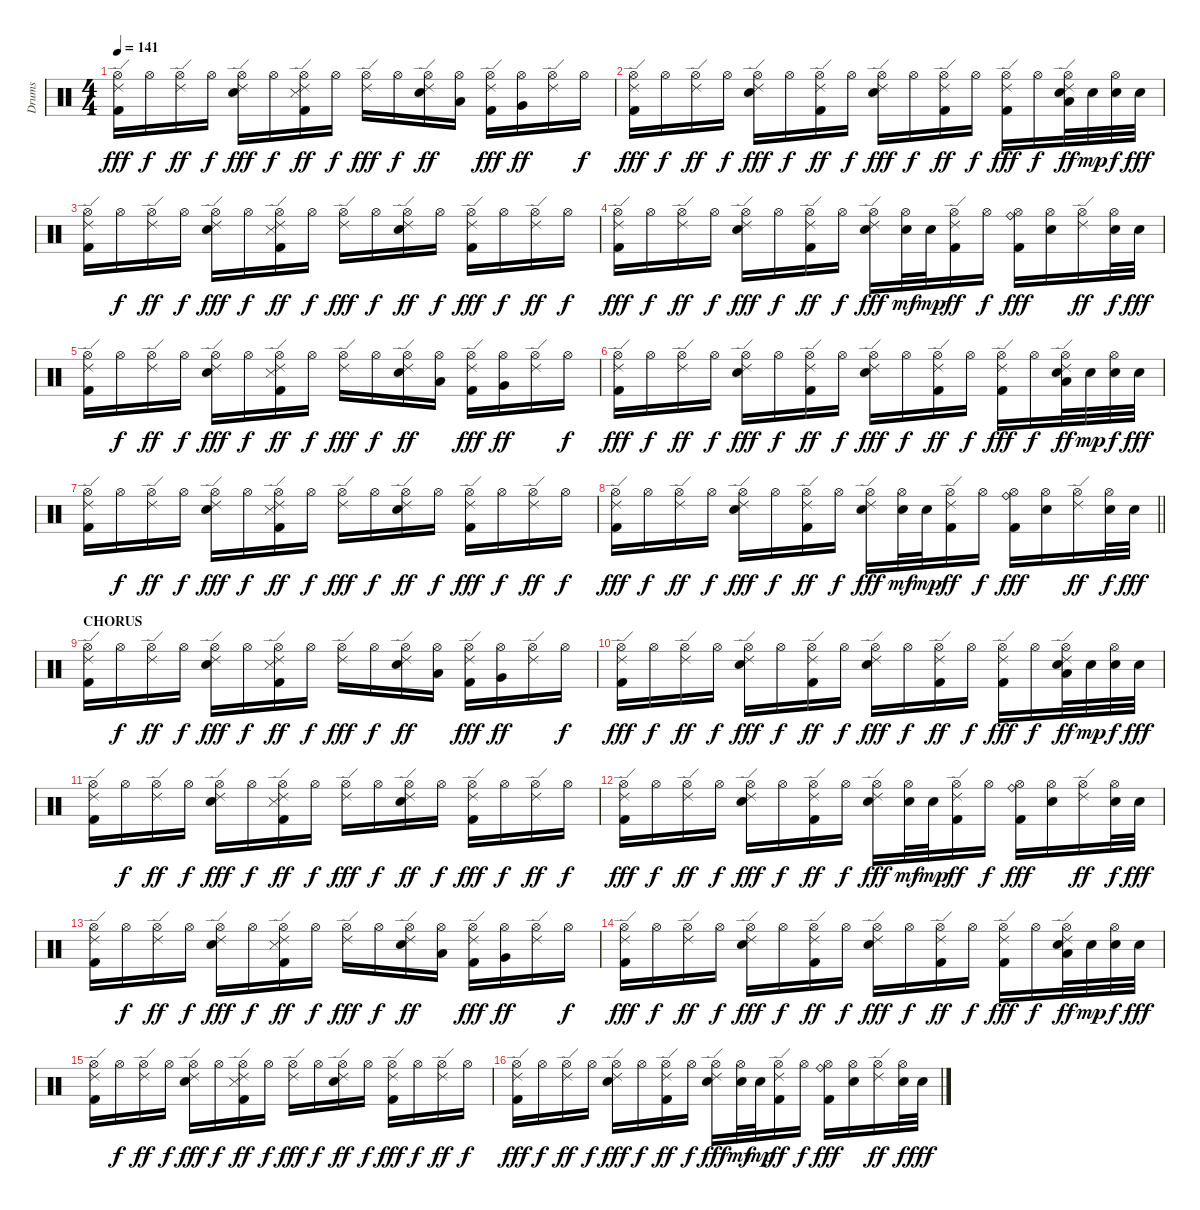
\track ("Drums" "Drums") {instrument percussion}
\staff {score}
\articulation defaults
\ts (4 4)
\tempo 141
\clef neutral
\ks c
("Kick (hit) 2" "Hi-Hat (open)" "Ride (edge) 2").16{dy fff} "Hi-Hat (open)".16{dy f} ("Hi-Hat (open)" "Ride (edge) 2").16{dy ff} "Hi-Hat (open)".16{dy f} ("Snare (hit) 2" "Hi-Hat (open)" "Ride (edge) 2").16{dy fff} "Hi-Hat (open)".16{dy f} ("Kick (hit) 2" "Snare (side stick) 3" "Hi-Hat (open)" "Ride (edge) 2").16{dy ff} "Hi-Hat (open)".16{dy f} ("Hi-Hat (open)" "Ride (edge) 2").16{dy fff} "Hi-Hat (open)".16{dy f} ("Snare (hit) 2" "Hi-Hat (open)" "Ride (edge) 2").16{dy ff} ("Hi-Hat (open)" "Low Floor Tom (hit)").16 ("Kick (hit) 2" "Hi-Hat (open)" "Ride (edge) 2").16{dy fff} ("Hi-Hat (open)" "Very Low Tom (hit)").16{dy ff} ("Hi-Hat (open)" "Ride (edge) 2").16 "Hi-Hat (open)".16{dy f} |
("Kick (hit) 2" "Hi-Hat (open)" "Ride (edge) 2").16{dy fff} "Hi-Hat (open)".16{dy f} ("Hi-Hat (open)" "Ride (edge) 2").16{dy ff} "Hi-Hat (open)".16{dy f} ("Snare (hit) 2" "Hi-Hat (open)" "Ride (edge) 2").16{dy fff} "Hi-Hat (open)".16{dy f} ("Kick (hit) 2" "Hi-Hat (open)" "Ride (edge) 2").16{dy ff} "Hi-Hat (open)".16{dy f} ("Snare (hit) 2" "Hi-Hat (open)" "Ride (edge) 2").16{dy fff} "Hi-Hat (open)".16{dy f} ("Kick (hit) 2" "Hi-Hat (open)" "Ride (edge) 2").16{dy ff} "Hi-Hat (open)".16{dy f} ("Kick (hit) 2" "Hi-Hat (open)" "Ride (edge) 2").16{dy fff} "Hi-Hat (open)".16{dy f} ("Snare (hit) 2" "Hi-Hat (open)" "Ride (edge) 2" "Low Tom (hit)").32{dy ff} "Snare (hit) 2".32{dy mp} ("Snare (hit) 2" "Hi-Hat (open)").32{dy f} "Snare (hit) 2".32{dy fff} |
("Kick (hit) 2" "Hi-Hat (open)" "Ride (edge) 2").16 "Hi-Hat (open)".16{dy f} ("Hi-Hat (open)" "Ride (edge) 2").16{dy ff} "Hi-Hat (open)".16{dy f} ("Snare (hit) 2" "Hi-Hat (open)" "Ride (edge) 2").16{dy fff} "Hi-Hat (open)".16{dy f} ("Kick (hit) 2" "Snare (side stick) 3" "Hi-Hat (open)" "Ride (edge) 2").16{dy ff} "Hi-Hat (open)".16{dy f} ("Hi-Hat (open)" "Ride (edge) 2").16{dy fff} "Hi-Hat (open)".16{dy f} ("Snare (hit) 2" "Hi-Hat (open)" "Ride (edge) 2").16{dy ff} "Hi-Hat (open)".16{dy f} ("Kick (hit) 2" "Hi-Hat (open)" "Ride (edge) 2").16{dy fff} "Hi-Hat (open)".16{dy f} ("Hi-Hat (open)" "Ride (edge) 2").16{dy ff} "Hi-Hat (open)".16{dy f} |
("Kick (hit) 2" "Hi-Hat (open)" "Ride (edge) 2").16{dy fff} "Hi-Hat (open)".16{dy f} ("Hi-Hat (open)" "Ride (edge) 2").16{dy ff} "Hi-Hat (open)".16{dy f} ("Snare (hit) 2" "Hi-Hat (open)" "Ride (edge) 2").16{dy fff} "Hi-Hat (open)".16{dy f} ("Kick (hit) 2" "Hi-Hat (open)" "Ride (edge) 2").16{dy ff} "Hi-Hat (open)".16{dy f} ("Snare (hit) 2" "Hi-Hat (open)" "Ride (edge) 2").16{dy fff} ("Snare (hit) 2" "Hi-Hat (open)").32{dy mf} "Snare (hit) 2".32{dy mp} ("Kick (hit) 2" "Hi-Hat (open)" "Ride (edge) 2").16{dy ff} "Hi-Hat (open)".16{dy f} ("Kick (hit) 2" "Hi-Hat (open)" "Ride (bell)").16{dy fff} ("Snare (hit) 2" "Hi-Hat (open)").16 ("Hi-Hat (open)" "Ride (edge) 2").16{dy ff} ("Snare (hit) 2" "Hi-Hat (open)").32{dy f} "Snare (hit) 2".32{dy fff} |
("Kick (hit) 2" "Hi-Hat (open)" "Ride (edge) 2").16 "Hi-Hat (open)".16{dy f} ("Hi-Hat (open)" "Ride (edge) 2").16{dy ff} "Hi-Hat (open)".16{dy f} ("Snare (hit) 2" "Hi-Hat (open)" "Ride (edge) 2").16{dy fff} "Hi-Hat (open)".16{dy f} ("Kick (hit) 2" "Snare (side stick) 3" "Hi-Hat (open)" "Ride (edge) 2").16{dy ff} "Hi-Hat (open)".16{dy f} ("Hi-Hat (open)" "Ride (edge) 2").16{dy fff} "Hi-Hat (open)".16{dy f} ("Snare (hit) 2" "Hi-Hat (open)" "Ride (edge) 2").16{dy ff} ("Hi-Hat (open)" "Low Floor Tom (hit)").16 ("Kick (hit) 2" "Hi-Hat (open)" "Ride (edge) 2").16{dy fff} ("Hi-Hat (open)" "Very Low Tom (hit)").16{dy ff} ("Hi-Hat (open)" "Ride (edge) 2").16 "Hi-Hat (open)".16{dy f} |
("Kick (hit) 2" "Hi-Hat (open)" "Ride (edge) 2").16{dy fff} "Hi-Hat (open)".16{dy f} ("Hi-Hat (open)" "Ride (edge) 2").16{dy ff} "Hi-Hat (open)".16{dy f} ("Snare (hit) 2" "Hi-Hat (open)" "Ride (edge) 2").16{dy fff} "Hi-Hat (open)".16{dy f} ("Kick (hit) 2" "Hi-Hat (open)" "Ride (edge) 2").16{dy ff} "Hi-Hat (open)".16{dy f} ("Snare (hit) 2" "Hi-Hat (open)" "Ride (edge) 2").16{dy fff} "Hi-Hat (open)".16{dy f} ("Kick (hit) 2" "Hi-Hat (open)" "Ride (edge) 2").16{dy ff} "Hi-Hat (open)".16{dy f} ("Kick (hit) 2" "Hi-Hat (open)" "Ride (edge) 2").16{dy fff} "Hi-Hat (open)".16{dy f} ("Snare (hit) 2" "Hi-Hat (open)" "Ride (edge) 2" "Low Tom (hit)").32{dy ff} "Snare (hit) 2".32{dy mp} ("Snare (hit) 2" "Hi-Hat (open)").32{dy f} "Snare (hit) 2".32{dy fff} |
("Kick (hit) 2" "Hi-Hat (open)" "Ride (edge) 2").16 "Hi-Hat (open)".16{dy f} ("Hi-Hat (open)" "Ride (edge) 2").16{dy ff} "Hi-Hat (open)".16{dy f} ("Snare (hit) 2" "Hi-Hat (open)" "Ride (edge) 2").16{dy fff} "Hi-Hat (open)".16{dy f} ("Kick (hit) 2" "Snare (side stick) 3" "Hi-Hat (open)" "Ride (edge) 2").16{dy ff} "Hi-Hat (open)".16{dy f} ("Hi-Hat (open)" "Ride (edge) 2").16{dy fff} "Hi-Hat (open)".16{dy f} ("Snare (hit) 2" "Hi-Hat (open)" "Ride (edge) 2").16{dy ff} "Hi-Hat (open)".16{dy f} ("Kick (hit) 2" "Hi-Hat (open)" "Ride (edge) 2").16{dy fff} "Hi-Hat (open)".16{dy f} ("Hi-Hat (open)" "Ride (edge) 2").16{dy ff} "Hi-Hat (open)".16{dy f} |
\barLineRight lightlight
("Kick (hit) 2" "Hi-Hat (open)" "Ride (edge) 2").16{dy fff} "Hi-Hat (open)".16{dy f} ("Hi-Hat (open)" "Ride (edge) 2").16{dy ff} "Hi-Hat (open)".16{dy f} ("Snare (hit) 2" "Hi-Hat (open)" "Ride (edge) 2").16{dy fff} "Hi-Hat (open)".16{dy f} ("Kick (hit) 2" "Hi-Hat (open)" "Ride (edge) 2").16{dy ff} "Hi-Hat (open)".16{dy f} ("Snare (hit) 2" "Hi-Hat (open)" "Ride (edge) 2").16{dy fff} ("Snare (hit) 2" "Hi-Hat (open)").32{dy mf} "Snare (hit) 2".32{dy mp} ("Kick (hit) 2" "Hi-Hat (open)" "Ride (edge) 2").16{dy ff} "Hi-Hat (open)".16{dy f} ("Kick (hit) 2" "Hi-Hat (open)" "Ride (bell)").16{dy fff} ("Snare (hit) 2" "Hi-Hat (open)").16 ("Hi-Hat (open)" "Ride (edge) 2").16{dy ff} ("Snare (hit) 2" "Hi-Hat (open)").32{dy f} "Snare (hit) 2".32{dy fff} |
\section ("" "CHORUS")
("Kick (hit) 2" "Hi-Hat (open)" "Ride (edge) 2").16 "Hi-Hat (open)".16{dy f} ("Hi-Hat (open)" "Ride (edge) 2").16{dy ff} "Hi-Hat (open)".16{dy f} ("Snare (hit) 2" "Hi-Hat (open)" "Ride (edge) 2").16{dy fff} "Hi-Hat (open)".16{dy f} ("Kick (hit) 2" "Snare (side stick) 3" "Hi-Hat (open)" "Ride (edge) 2").16{dy ff} "Hi-Hat (open)".16{dy f} ("Hi-Hat (open)" "Ride (edge) 2").16{dy fff} "Hi-Hat (open)".16{dy f} ("Snare (hit) 2" "Hi-Hat (open)" "Ride (edge) 2").16{dy ff} ("Hi-Hat (open)" "Low Floor Tom (hit)").16 ("Kick (hit) 2" "Hi-Hat (open)" "Ride (edge) 2").16{dy fff} ("Hi-Hat (open)" "Very Low Tom (hit)").16{dy ff} ("Hi-Hat (open)" "Ride (edge) 2").16 "Hi-Hat (open)".16{dy f} |
("Kick (hit) 2" "Hi-Hat (open)" "Ride (edge) 2").16{dy fff} "Hi-Hat (open)".16{dy f} ("Hi-Hat (open)" "Ride (edge) 2").16{dy ff} "Hi-Hat (open)".16{dy f} ("Snare (hit) 2" "Hi-Hat (open)" "Ride (edge) 2").16{dy fff} "Hi-Hat (open)".16{dy f} ("Kick (hit) 2" "Hi-Hat (open)" "Ride (edge) 2").16{dy ff} "Hi-Hat (open)".16{dy f} ("Snare (hit) 2" "Hi-Hat (open)" "Ride (edge) 2").16{dy fff} "Hi-Hat (open)".16{dy f} ("Kick (hit) 2" "Hi-Hat (open)" "Ride (edge) 2").16{dy ff} "Hi-Hat (open)".16{dy f} ("Kick (hit) 2" "Hi-Hat (open)" "Ride (edge) 2").16{dy fff} "Hi-Hat (open)".16{dy f} ("Snare (hit) 2" "Hi-Hat (open)" "Ride (edge) 2" "Low Tom (hit)").32{dy ff} "Snare (hit) 2".32{dy mp} ("Snare (hit) 2" "Hi-Hat (open)").32{dy f} "Snare (hit) 2".32{dy fff} |
("Kick (hit) 2" "Hi-Hat (open)" "Ride (edge) 2").16 "Hi-Hat (open)".16{dy f} ("Hi-Hat (open)" "Ride (edge) 2").16{dy ff} "Hi-Hat (open)".16{dy f} ("Snare (hit) 2" "Hi-Hat (open)" "Ride (edge) 2").16{dy fff} "Hi-Hat (open)".16{dy f} ("Kick (hit) 2" "Snare (side stick) 3" "Hi-Hat (open)" "Ride (edge) 2").16{dy ff} "Hi-Hat (open)".16{dy f} ("Hi-Hat (open)" "Ride (edge) 2").16{dy fff} "Hi-Hat (open)".16{dy f} ("Snare (hit) 2" "Hi-Hat (open)" "Ride (edge) 2").16{dy ff} "Hi-Hat (open)".16{dy f} ("Kick (hit) 2" "Hi-Hat (open)" "Ride (edge) 2").16{dy fff} "Hi-Hat (open)".16{dy f} ("Hi-Hat (open)" "Ride (edge) 2").16{dy ff} "Hi-Hat (open)".16{dy f} |
("Kick (hit) 2" "Hi-Hat (open)" "Ride (edge) 2").16{dy fff} "Hi-Hat (open)".16{dy f} ("Hi-Hat (open)" "Ride (edge) 2").16{dy ff} "Hi-Hat (open)".16{dy f} ("Snare (hit) 2" "Hi-Hat (open)" "Ride (edge) 2").16{dy fff} "Hi-Hat (open)".16{dy f} ("Kick (hit) 2" "Hi-Hat (open)" "Ride (edge) 2").16{dy ff} "Hi-Hat (open)".16{dy f} ("Snare (hit) 2" "Hi-Hat (open)" "Ride (edge) 2").16{dy fff} ("Snare (hit) 2" "Hi-Hat (open)").32{dy mf} "Snare (hit) 2".32{dy mp} ("Kick (hit) 2" "Hi-Hat (open)" "Ride (edge) 2").16{dy ff} "Hi-Hat (open)".16{dy f} ("Kick (hit) 2" "Hi-Hat (open)" "Ride (bell)").16{dy fff} ("Snare (hit) 2" "Hi-Hat (open)").16 ("Hi-Hat (open)" "Ride (edge) 2").16{dy ff} ("Snare (hit) 2" "Hi-Hat (open)").32{dy f} "Snare (hit) 2".32{dy fff} |
("Kick (hit) 2" "Hi-Hat (open)" "Ride (edge) 2").16 "Hi-Hat (open)".16{dy f} ("Hi-Hat (open)" "Ride (edge) 2").16{dy ff} "Hi-Hat (open)".16{dy f} ("Snare (hit) 2" "Hi-Hat (open)" "Ride (edge) 2").16{dy fff} "Hi-Hat (open)".16{dy f} ("Kick (hit) 2" "Snare (side stick) 3" "Hi-Hat (open)" "Ride (edge) 2").16{dy ff} "Hi-Hat (open)".16{dy f} ("Hi-Hat (open)" "Ride (edge) 2").16{dy fff} "Hi-Hat (open)".16{dy f} ("Snare (hit) 2" "Hi-Hat (open)" "Ride (edge) 2").16{dy ff} ("Hi-Hat (open)" "Low Floor Tom (hit)").16 ("Kick (hit) 2" "Hi-Hat (open)" "Ride (edge) 2").16{dy fff} ("Hi-Hat (open)" "Very Low Tom (hit)").16{dy ff} ("Hi-Hat (open)" "Ride (edge) 2").16 "Hi-Hat (open)".16{dy f} |
("Kick (hit) 2" "Hi-Hat (open)" "Ride (edge) 2").16{dy fff} "Hi-Hat (open)".16{dy f} ("Hi-Hat (open)" "Ride (edge) 2").16{dy ff} "Hi-Hat (open)".16{dy f} ("Snare (hit) 2" "Hi-Hat (open)" "Ride (edge) 2").16{dy fff} "Hi-Hat (open)".16{dy f} ("Kick (hit) 2" "Hi-Hat (open)" "Ride (edge) 2").16{dy ff} "Hi-Hat (open)".16{dy f} ("Snare (hit) 2" "Hi-Hat (open)" "Ride (edge) 2").16{dy fff} "Hi-Hat (open)".16{dy f} ("Kick (hit) 2" "Hi-Hat (open)" "Ride (edge) 2").16{dy ff} "Hi-Hat (open)".16{dy f} ("Kick (hit) 2" "Hi-Hat (open)" "Ride (edge) 2").16{dy fff} "Hi-Hat (open)".16{dy f} ("Snare (hit) 2" "Hi-Hat (open)" "Ride (edge) 2" "Low Tom (hit)").32{dy ff} "Snare (hit) 2".32{dy mp} ("Snare (hit) 2" "Hi-Hat (open)").32{dy f} "Snare (hit) 2".32{dy fff} |
("Kick (hit) 2" "Hi-Hat (open)" "Ride (edge) 2").16 "Hi-Hat (open)".16{dy f} ("Hi-Hat (open)" "Ride (edge) 2").16{dy ff} "Hi-Hat (open)".16{dy f} ("Snare (hit) 2" "Hi-Hat (open)" "Ride (edge) 2").16{dy fff} "Hi-Hat (open)".16{dy f} ("Kick (hit) 2" "Snare (side stick) 3" "Hi-Hat (open)" "Ride (edge) 2").16{dy ff} "Hi-Hat (open)".16{dy f} ("Hi-Hat (open)" "Ride (edge) 2").16{dy fff} "Hi-Hat (open)".16{dy f} ("Snare (hit) 2" "Hi-Hat (open)" "Ride (edge) 2").16{dy ff} "Hi-Hat (open)".16{dy f} ("Kick (hit) 2" "Hi-Hat (open)" "Ride (edge) 2").16{dy fff} "Hi-Hat (open)".16{dy f} ("Hi-Hat (open)" "Ride (edge) 2").16{dy ff} "Hi-Hat (open)".16{dy f} |
("Kick (hit) 2" "Hi-Hat (open)" "Ride (edge) 2").16{dy fff} "Hi-Hat (open)".16{dy f} ("Hi-Hat (open)" "Ride (edge) 2").16{dy ff} "Hi-Hat (open)".16{dy f} ("Snare (hit) 2" "Hi-Hat (open)" "Ride (edge) 2").16{dy fff} "Hi-Hat (open)".16{dy f} ("Kick (hit) 2" "Hi-Hat (open)" "Ride (edge) 2").16{dy ff} "Hi-Hat (open)".16{dy f} ("Snare (hit) 2" "Hi-Hat (open)" "Ride (edge) 2").16{dy fff} ("Snare (hit) 2" "Hi-Hat (open)").32{dy mf} "Snare (hit) 2".32{dy mp} ("Kick (hit) 2" "Hi-Hat (open)" "Ride (edge) 2").16{dy ff} "Hi-Hat (open)".16{dy f} ("Kick (hit) 2" "Hi-Hat (open)" "Ride (bell)").16{dy fff} ("Snare (hit) 2" "Hi-Hat (open)").16 ("Hi-Hat (open)" "Ride (edge) 2").16{dy ff} ("Snare (hit) 2" "Hi-Hat (open)").32{dy f} "Snare (hit) 2".32{dy fff}
